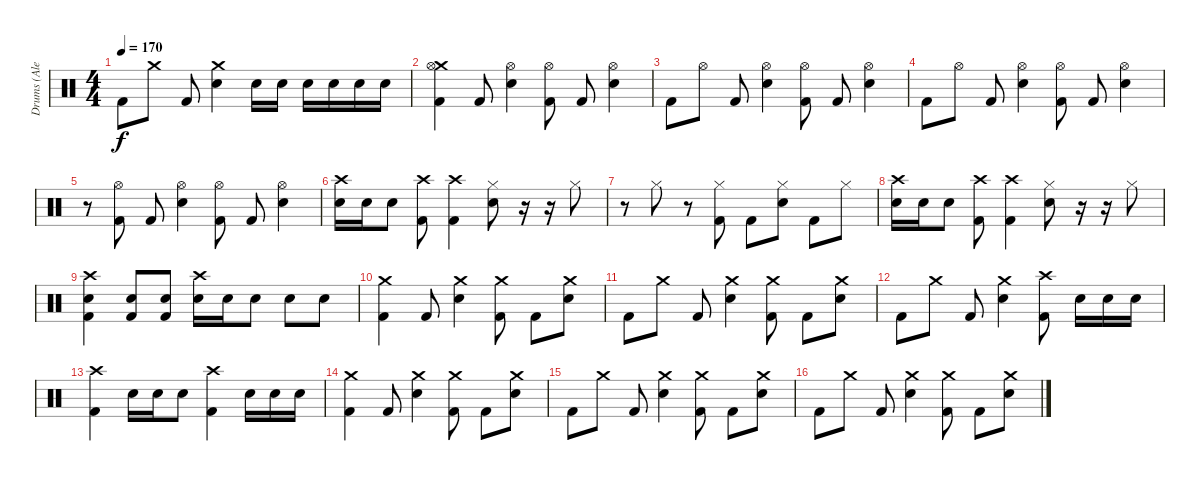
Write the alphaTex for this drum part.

\track ("Drums (Alex Shelnutt)" "Drums (Ale") {instrument percussion}
\staff {score}
\articulation defaults
\ts (4 4)
\tempo 170
\clef neutral
\ks c "Kick (hit) 2".8{dy f} "Crash medium (hit)".8 "Kick (hit) 2".8
("Crash medium (hit)" "Electric Snare (hit)").4 "Electric Snare (hit)".16 "Electric Snare (hit)".16 "Electric Snare (hit)".16 "Electric Snare (hit)".16 "Electric Snare (hit)".16 "Electric Snare (hit)".16 |
("Crash medium (hit)" "Hi-Hat (open)" "Kick (hit) 2").4 "Kick (hit) 2".8 ("Hi-Hat (open)" "Electric Snare (hit)").4 ("Hi-Hat (open)" "Kick (hit) 2").8 "Kick (hit) 2".8 ("Hi-Hat (open)" "Electric Snare (hit)").4 |
"Kick (hit) 2".8 "Hi-Hat (open)".8 "Kick (hit) 2".8 ("Hi-Hat (open)" "Electric Snare (hit)").4 ("Hi-Hat (open)" "Kick (hit) 2").8 "Kick (hit) 2".8 ("Hi-Hat (open)" "Electric Snare (hit)").4 |
"Kick (hit) 2".8 "Hi-Hat (open)".8 "Kick (hit) 2".8 ("Hi-Hat (open)" "Electric Snare (hit)").4 ("Hi-Hat (open)" "Kick (hit) 2").8 "Kick (hit) 2".8 ("Hi-Hat (open)" "Electric Snare (hit)").4 |
r.8 ("Hi-Hat (open)" "Kick (hit) 2").8 "Kick (hit) 2".8 ("Hi-Hat (open)" "Electric Snare (hit)").4 ("Hi-Hat (open)" "Kick (hit) 2").8 "Kick (hit) 2".8 ("Hi-Hat (open)" "Electric Snare (hit)").4 |
("Crash high (hit)" "Electric Snare (hit)").16 "Electric Snare (hit)".16 "Electric Snare (hit)".8 ("Crash high (hit)" "Kick (hit) 2").8 ("Crash high (hit)" "Kick (hit) 2").4 ("Hi-Hat (closed)" "Electric Snare (hit)").8 r.16 r.16 "Hi-Hat (closed)".8 |
r.8 "Hi-Hat (closed)".8 r.8 ("Hi-Hat (closed)" "Kick (hit) 2").8 "Kick (hit) 2".8 ("Hi-Hat (closed)" "Electric Snare (hit)").8 "Kick (hit) 2".8 "Hi-Hat (closed)".8 |
("Crash high (hit)" "Electric Snare (hit)").16 "Electric Snare (hit)".16 "Electric Snare (hit)".8 ("Crash high (hit)" "Kick (hit) 2").8 ("Crash high (hit)" "Kick (hit) 2").4 ("Hi-Hat (closed)" "Electric Snare (hit)").8 r.16 r.16 "Hi-Hat (closed)".8 |
("Crash high (hit)" "Electric Snare (hit)" "Kick (hit) 2").4 ("Electric Snare (hit)" "Kick (hit) 2").8 ("Electric Snare (hit)" "Kick (hit) 2").8 ("Crash high (hit)" "Electric Snare (hit)").16 "Electric Snare (hit)".16 "Electric Snare (hit)".8 "Electric Snare (hit)".8 "Electric Snare (hit)".8 |
("Crash medium (hit)" "Kick (hit) 2").4 "Kick (hit) 2".8 ("Crash medium (hit)" "Electric Snare (hit)").4 ("Crash medium (hit)" "Kick (hit) 2").8 "Kick (hit) 2".8 ("Crash medium (hit)" "Electric Snare (hit)").8 |
"Kick (hit) 2".8 "Crash medium (hit)".8 "Kick (hit) 2".8 ("Crash medium (hit)" "Electric Snare (hit)").4 ("Crash medium (hit)" "Kick (hit) 2").8 "Kick (hit) 2".8 ("Crash medium (hit)" "Electric Snare (hit)").8 |
"Kick (hit) 2".8 "Crash medium (hit)".8 "Kick (hit) 2".8 ("Crash medium (hit)" "Electric Snare (hit)").4 ("Crash high (hit)" "Kick (hit) 2").8 "Electric Snare (hit)".16 "Electric Snare (hit)".16 "Electric Snare (hit)".16 |
("Crash high (hit)" "Kick (hit) 2").4 "Electric Snare (hit)".16 "Electric Snare (hit)".16 "Electric Snare (hit)".8 ("Crash high (hit)" "Kick (hit) 2").4 "Electric Snare (hit)".16 "Electric Snare (hit)".16 "Electric Snare (hit)".16 |
("Crash medium (hit)" "Kick (hit) 2").4 "Kick (hit) 2".8 ("Crash medium (hit)" "Electric Snare (hit)").4 ("Crash medium (hit)" "Kick (hit) 2").8 "Kick (hit) 2".8 ("Crash medium (hit)" "Electric Snare (hit)").8 |
"Kick (hit) 2".8 "Crash medium (hit)".8 "Kick (hit) 2".8 ("Crash medium (hit)" "Electric Snare (hit)").4 ("Crash medium (hit)" "Kick (hit) 2").8 "Kick (hit) 2".8 ("Crash medium (hit)" "Electric Snare (hit)").8 |
"Kick (hit) 2".8 "Crash medium (hit)".8 "Kick (hit) 2".8 ("Crash medium (hit)" "Electric Snare (hit)").4 ("Crash medium (hit)" "Kick (hit) 2").8 "Kick (hit) 2".8 ("Crash medium (hit)" "Electric Snare (hit)").8
